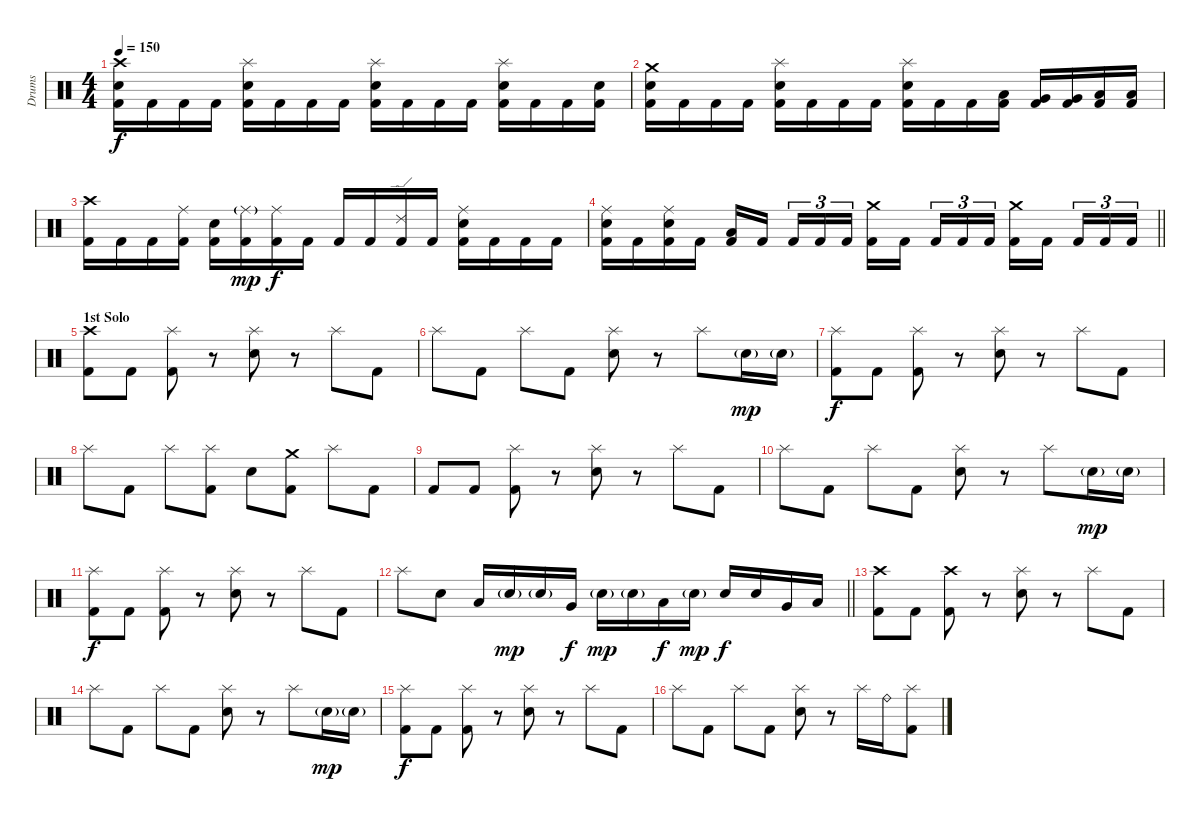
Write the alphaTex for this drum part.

\track ("Drums" "Drums") {instrument percussion}
\staff {score}
\articulation defaults
\ts (4 4)
\tempo 150
\clef neutral
\ks c
("Crash high (hit)" "Electric Snare (hit)" "Kick (hit) 2").16{dy f} "Kick (hit) 2".16 "Kick (hit) 2".16 "Kick (hit) 2".16 ("Splash (hit)" "Electric Snare (hit)" "Kick (hit) 2").16 "Kick (hit) 2".16 "Kick (hit) 2".16 "Kick (hit) 2".16 ("Splash (hit)" "Electric Snare (hit)" "Kick (hit) 2").16 "Kick (hit) 2".16 "Kick (hit) 2".16 "Kick (hit) 2".16 ("Splash (hit)" "Electric Snare (hit)" "Kick (hit) 2").16 "Kick (hit) 2".16 "Kick (hit) 2".16 ("Electric Snare (hit)" "Kick (hit) 2").16 |
("Crash medium (hit)" "Electric Snare (hit)" "Kick (hit) 2").16 "Kick (hit) 2".16 "Kick (hit) 2".16 "Kick (hit) 2".16 ("Splash (hit)" "Electric Snare (hit)" "Kick (hit) 2").16 "Kick (hit) 2".16 "Kick (hit) 2".16 "Kick (hit) 2".16 ("Splash (hit)" "Electric Snare (hit)" "Kick (hit) 2").16 "Kick (hit) 2".16 "Kick (hit) 2".16 ("Low Floor Tom (hit)" "Kick (hit) 2").16 ("Very Low Tom (hit)" "Kick (hit) 2").16 ("Very Low Tom (hit)" "Kick (hit) 2").16 ("Low Floor Tom (hit)" "Kick (hit) 2").16 ("Low Floor Tom (hit)" "Kick (hit) 2").16 |
("Crash high (hit)" "Kick (hit) 2").16 "Kick (hit) 2".16 "Kick (hit) 2".16 ("Ride (middle)" "Kick (hit) 2").16 ("Electric Snare (hit)" "Kick (hit) 2").16 ("Ride (middle)"{g} "Kick (hit) 2").16{dy mp} ("Ride (middle)" "Kick (hit) 2").16{dy f} "Kick (hit) 2".16 "Kick (hit) 2".16 "Kick (hit) 2".16 ("Ride (edge) 2" "Kick (hit) 2").16 "Kick (hit) 2".16 ("Ride (middle)" "Electric Snare (hit)" "Kick (hit) 2").16 "Kick (hit) 2".16 "Kick (hit) 2".16 "Kick (hit) 2".16 |
\barLineRight lightlight
("Ride (middle)" "Electric Snare (hit)" "Kick (hit) 2").16 "Kick (hit) 2".16 ("Ride (middle)" "Electric Snare (hit)" "Kick (hit) 2").16 "Kick (hit) 2".16 ("Low Floor Tom (hit)" "Kick (hit) 2").16 "Kick (hit) 2".16{beam splitsecondary} "Kick (hit) 2".16{tu (3 2)} "Kick (hit) 2".16{tu (3 2)} "Kick (hit) 2".16{tu (3 2)} ("Crash medium (hit)" "Kick (hit) 2").16 "Kick (hit) 2".16{beam splitsecondary} "Kick (hit) 2".16{tu (3 2)} "Kick (hit) 2".16{tu (3 2)} "Kick (hit) 2".16{tu (3 2)} ("Crash medium (hit)" "Kick (hit) 2").16 "Kick (hit) 2".16{beam splitsecondary} "Kick (hit) 2".16{tu (3 2)} "Kick (hit) 2".16{tu (3 2)} "Kick (hit) 2".16{tu (3 2)} |
\section ("" "1st Solo")
("Crash high (hit)" "Kick (hit) 2").8 "Kick (hit) 2".8 ("Splash (hit)" "Kick (hit) 2").8 r.8 ("Splash (hit)" "Electric Snare (hit)").8 r.8 "Splash (hit)".8 "Kick (hit) 2".8 |
"Splash (hit)".8 "Kick (hit) 2".8 "Splash (hit)".8 "Kick (hit) 2".8 ("Splash (hit)" "Electric Snare (hit)").8 r.8 "Splash (hit)".8 "Electric Snare (hit)"{g}.16{dy mp} "Electric Snare (hit)"{g}.16 |
("Splash (hit)" "Kick (hit) 2").8{dy f} "Kick (hit) 2".8 ("Splash (hit)" "Kick (hit) 2").8 r.8 ("Splash (hit)" "Electric Snare (hit)").8 r.8 "Splash (hit)".8 "Kick (hit) 2".8 |
"Splash (hit)".8 "Kick (hit) 2".8 "Splash (hit)".8 ("Splash (hit)" "Kick (hit) 2").8 "Electric Snare (hit)".8 ("Crash medium (hit)" "Kick (hit) 2").8 "Splash (hit)".8 "Kick (hit) 2".8 |
"Kick (hit) 2".8 "Kick (hit) 2".8 ("Splash (hit)" "Kick (hit) 2").8 r.8 ("Splash (hit)" "Electric Snare (hit)").8 r.8 "Splash (hit)".8 "Kick (hit) 2".8 |
"Splash (hit)".8 "Kick (hit) 2".8 "Splash (hit)".8 "Kick (hit) 2".8 ("Splash (hit)" "Electric Snare (hit)").8 r.8 "Splash (hit)".8 "Electric Snare (hit)"{g}.16{dy mp} "Electric Snare (hit)"{g}.16 |
("Splash (hit)" "Kick (hit) 2").8{dy f} "Kick (hit) 2".8 ("Splash (hit)" "Kick (hit) 2").8 r.8 ("Splash (hit)" "Electric Snare (hit)").8 r.8 "Splash (hit)".8 "Kick (hit) 2".8 |
\barLineRight lightlight "Splash (hit)".8 "Electric Snare (hit)".8 "Low Tom (hit)".16 "Electric Snare (hit)"{g}.16{dy mp} "Electric Snare (hit)"{g}.16 "Very Low Tom (hit)".16{dy f} "Electric Snare (hit)"{g}.16{dy mp} "Electric Snare (hit)"{g}.16 "Low Floor Tom (hit)".16{dy f} "Electric Snare (hit)"{g}.16{dy mp} "Electric Snare (hit)".16{dy f} "Electric Snare (hit)".16 "Very Low Tom (hit)".16 "Low Floor Tom (hit)".16
|
\section ("" "")
("Crash high (hit)" "Kick (hit) 2").8 "Kick (hit) 2".8 ("Crash high (hit)" "Kick (hit) 2").8 r.8 ("Splash (hit)" "Electric Snare (hit)").8 r.8 "Splash (hit)".8 "Kick (hit) 2".8 |
"Splash (hit)".8 "Kick (hit) 2".8 "Splash (hit)".8 "Kick (hit) 2".8 ("Splash (hit)" "Electric Snare (hit)").8 r.8 "Splash (hit)".8 "Electric Snare (hit)"{g}.16{dy mp} "Electric Snare (hit)"{g}.16 |
("Splash (hit)" "Kick (hit) 2").8{dy f} "Kick (hit) 2".8 ("Splash (hit)" "Kick (hit) 2").8 r.8 ("Splash (hit)" "Electric Snare (hit)").8 r.8 "Splash (hit)".8 "Kick (hit) 2".8 |
"Splash (hit)".8 "Kick (hit) 2".8 "Splash (hit)".8 "Kick (hit) 2".8 ("Splash (hit)" "Electric Snare (hit)").8 r.8 "Splash (hit)".16 "Ride (bell)".16 ("Splash (hit)" "Kick (hit) 2").8
